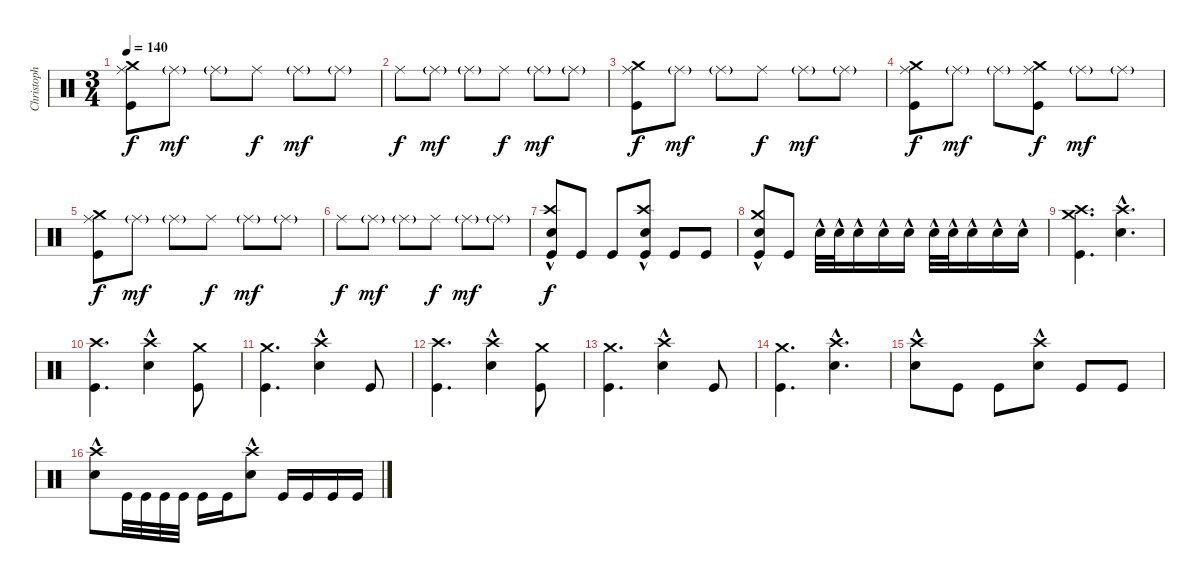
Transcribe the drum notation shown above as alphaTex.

\track ("Christoph \"Doom\" Schneider" "Christoph ") {instrument percussion}
\staff {score}
\articulation defaults
\ts (3 4)
\tempo 140
\clef neutral
\ks c
("Ride (middle)" "Kick (hit)" "Crash medium (hit)").8{dy f} "Ride (middle)"{g}.8{dy mf} "Ride (middle)"{g}.8 "Ride (middle)".8{dy f} "Ride (middle)"{g}.8{dy mf} "Ride (middle)"{g}.8 |
"Ride (middle)".8{dy f} "Ride (middle)"{g}.8{dy mf} "Ride (middle)"{g}.8 "Ride (middle)".8{dy f} "Ride (middle)"{g}.8{dy mf} "Ride (middle)"{g}.8 |
("Ride (middle)" "Kick (hit)" "Crash medium (hit)").8{dy f} "Ride (middle)"{g}.8{dy mf} "Ride (middle)"{g}.8 "Ride (middle)".8{dy f} "Ride (middle)"{g}.8{dy mf} "Ride (middle)"{g}.8 |
("Ride (middle)" "Kick (hit)" "Crash medium (hit)").8{dy f} "Ride (middle)"{g}.8{dy mf} "Ride (middle)"{g}.8 ("Ride (middle)" "Kick (hit)" "Crash medium (hit)").8{dy f} "Ride (middle)"{g}.8{dy mf} "Ride (middle)"{g}.8 |
("Ride (middle)" "Kick (hit)" "Crash medium (hit)").8{dy f} "Ride (middle)"{g}.8{dy mf} "Ride (middle)"{g}.8 "Ride (middle)".8{dy f} "Ride (middle)"{g}.8{dy mf} "Ride (middle)"{g}.8 |
"Ride (middle)".8{dy f} "Ride (middle)"{g}.8{dy mf} "Ride (middle)"{g}.8 "Ride (middle)".8{dy f} "Ride (middle)"{g}.8{dy mf} "Ride (middle)"{g}.8 |
("Crash high (hit)" "Kick (hit)" "Snare (hit) 2"{hac}).8{dy f} "Kick (hit)".8 "Kick (hit)".8 ("Crash high (hit)" "Kick (hit)" "Snare (hit) 2"{hac}).8 "Kick (hit)".8 "Kick (hit)".8 |
("Crash medium (hit)" "Kick (hit)" "Snare (hit) 2"{hac}).8 "Kick (hit)".8 "Snare (hit) 2"{hac}.32 "Snare (hit) 2"{hac}.32 "Snare (hit) 2"{hac}.16 "Snare (hit) 2"{hac}.16 "Snare (hit) 2"{hac}.16 "Snare (hit) 2"{hac}.32 "Snare (hit) 2"{hac}.32 "Snare (hit) 2"{hac}.16 "Snare (hit) 2"{hac}.16 "Snare (hit) 2"{hac}.16 |
("Crash high (hit)" "Kick (hit)" "Crash medium (hit)").4{d} ("Crash high (hit)" "Snare (hit) 2"{hac}).4{d} |
("Crash high (hit)" "Kick (hit)").4{d} ("Crash high (hit)" "Snare (hit) 2"{hac}).4 ("Crash medium (hit)" "Kick (hit)").8 |
("Kick (hit)" "Crash medium (hit)").4{d} ("Crash high (hit)" "Snare (hit) 2"{hac}).4 "Kick (hit)".8 |
("Crash high (hit)" "Kick (hit)").4{d} ("Crash high (hit)" "Snare (hit) 2"{hac}).4 ("Crash medium (hit)" "Kick (hit)").8 |
("Kick (hit)" "Crash medium (hit)").4{d} ("Crash high (hit)" "Snare (hit) 2"{hac}).4 "Kick (hit)".8 |
("Kick (hit)" "Crash medium (hit)").4{d} ("Crash high (hit)" "Snare (hit) 2"{hac}).4{d} |
("Crash high (hit)" "Snare (hit) 2"{hac}).8 "Kick (hit)".8 "Kick (hit)".8 ("Crash high (hit)" "Snare (hit) 2"{hac}).8 "Kick (hit)".8 "Kick (hit)".8 |
("Crash high (hit)" "Snare (hit) 2"{hac}).8 "Kick (hit)".32 "Kick (hit)".32 "Kick (hit)".32 "Kick (hit)".32 "Kick (hit)".16 "Kick (hit)".16 ("Crash high (hit)" "Snare (hit) 2"{hac}).8 "Kick (hit)".16 "Kick (hit)".16 "Kick (hit)".16 "Kick (hit)".16
